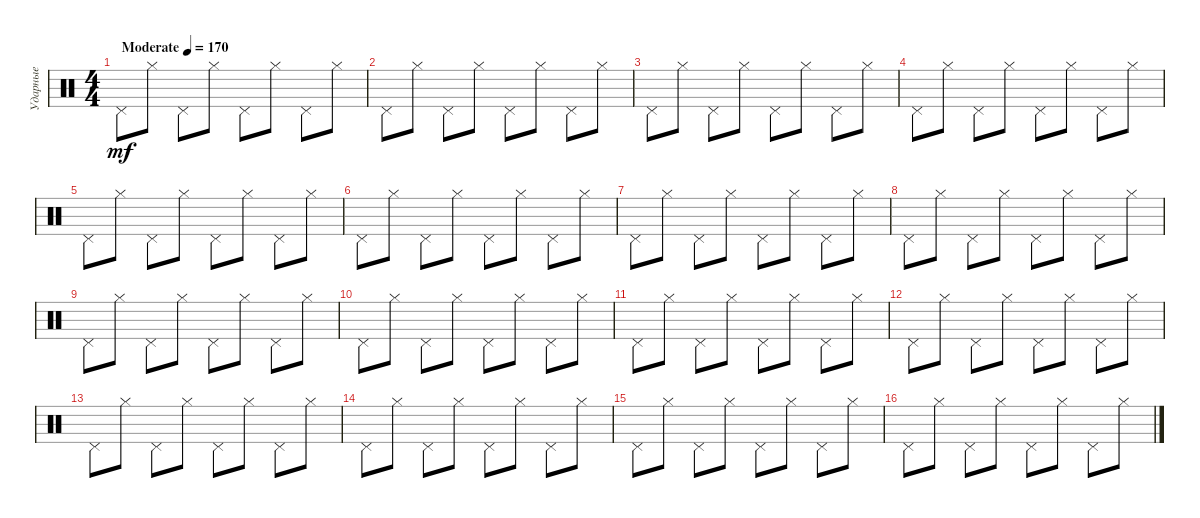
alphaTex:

\track ("Ударные" "Ударные") {instrument percussion}
\staff {score}
\articulation defaults
\ts (4 4)
\tempo (170 "Moderate")
\clef neutral
\ks c "Pedal Hi-Hat (hit)".8{dy mf} "Hi-Hat (closed)".8 "Pedal Hi-Hat (hit)".8 "Hi-Hat (closed)".8 "Pedal Hi-Hat (hit)".8 "Hi-Hat (closed)".8 "Pedal Hi-Hat (hit)".8 "Hi-Hat (closed)".8
|
"Pedal Hi-Hat (hit)".8 "Hi-Hat (closed)".8 "Pedal Hi-Hat (hit)".8 "Hi-Hat (closed)".8 "Pedal Hi-Hat (hit)".8 "Hi-Hat (closed)".8 "Pedal Hi-Hat (hit)".8 "Hi-Hat (closed)".8 |
"Pedal Hi-Hat (hit)".8 "Hi-Hat (closed)".8 "Pedal Hi-Hat (hit)".8 "Hi-Hat (closed)".8 "Pedal Hi-Hat (hit)".8 "Hi-Hat (closed)".8 "Pedal Hi-Hat (hit)".8 "Hi-Hat (closed)".8 |
"Pedal Hi-Hat (hit)".8 "Hi-Hat (closed)".8 "Pedal Hi-Hat (hit)".8 "Hi-Hat (closed)".8 "Pedal Hi-Hat (hit)".8 "Hi-Hat (closed)".8 "Pedal Hi-Hat (hit)".8 "Hi-Hat (closed)".8 |
"Pedal Hi-Hat (hit)".8 "Hi-Hat (closed)".8 "Pedal Hi-Hat (hit)".8 "Hi-Hat (closed)".8 "Pedal Hi-Hat (hit)".8 "Hi-Hat (closed)".8 "Pedal Hi-Hat (hit)".8 "Hi-Hat (closed)".8 |
"Pedal Hi-Hat (hit)".8 "Hi-Hat (closed)".8 "Pedal Hi-Hat (hit)".8 "Hi-Hat (closed)".8 "Pedal Hi-Hat (hit)".8 "Hi-Hat (closed)".8 "Pedal Hi-Hat (hit)".8 "Hi-Hat (closed)".8 |
"Pedal Hi-Hat (hit)".8 "Hi-Hat (closed)".8 "Pedal Hi-Hat (hit)".8 "Hi-Hat (closed)".8 "Pedal Hi-Hat (hit)".8 "Hi-Hat (closed)".8 "Pedal Hi-Hat (hit)".8 "Hi-Hat (closed)".8 |
"Pedal Hi-Hat (hit)".8 "Hi-Hat (closed)".8 "Pedal Hi-Hat (hit)".8 "Hi-Hat (closed)".8 "Pedal Hi-Hat (hit)".8 "Hi-Hat (closed)".8 "Pedal Hi-Hat (hit)".8 "Hi-Hat (closed)".8 |
"Pedal Hi-Hat (hit)".8 "Hi-Hat (closed)".8 "Pedal Hi-Hat (hit)".8 "Hi-Hat (closed)".8 "Pedal Hi-Hat (hit)".8 "Hi-Hat (closed)".8 "Pedal Hi-Hat (hit)".8 "Hi-Hat (closed)".8 |
"Pedal Hi-Hat (hit)".8 "Hi-Hat (closed)".8 "Pedal Hi-Hat (hit)".8 "Hi-Hat (closed)".8 "Pedal Hi-Hat (hit)".8 "Hi-Hat (closed)".8 "Pedal Hi-Hat (hit)".8 "Hi-Hat (closed)".8 |
"Pedal Hi-Hat (hit)".8 "Hi-Hat (closed)".8 "Pedal Hi-Hat (hit)".8 "Hi-Hat (closed)".8 "Pedal Hi-Hat (hit)".8 "Hi-Hat (closed)".8 "Pedal Hi-Hat (hit)".8 "Hi-Hat (closed)".8 |
"Pedal Hi-Hat (hit)".8 "Hi-Hat (closed)".8 "Pedal Hi-Hat (hit)".8 "Hi-Hat (closed)".8 "Pedal Hi-Hat (hit)".8 "Hi-Hat (closed)".8 "Pedal Hi-Hat (hit)".8 "Hi-Hat (closed)".8 |
"Pedal Hi-Hat (hit)".8 "Hi-Hat (closed)".8 "Pedal Hi-Hat (hit)".8 "Hi-Hat (closed)".8 "Pedal Hi-Hat (hit)".8 "Hi-Hat (closed)".8 "Pedal Hi-Hat (hit)".8 "Hi-Hat (closed)".8 |
"Pedal Hi-Hat (hit)".8 "Hi-Hat (closed)".8 "Pedal Hi-Hat (hit)".8 "Hi-Hat (closed)".8 "Pedal Hi-Hat (hit)".8 "Hi-Hat (closed)".8 "Pedal Hi-Hat (hit)".8 "Hi-Hat (closed)".8 |
"Pedal Hi-Hat (hit)".8 "Hi-Hat (closed)".8 "Pedal Hi-Hat (hit)".8 "Hi-Hat (closed)".8 "Pedal Hi-Hat (hit)".8 "Hi-Hat (closed)".8 "Pedal Hi-Hat (hit)".8 "Hi-Hat (closed)".8 |
"Pedal Hi-Hat (hit)".8 "Hi-Hat (closed)".8 "Pedal Hi-Hat (hit)".8 "Hi-Hat (closed)".8 "Pedal Hi-Hat (hit)".8 "Hi-Hat (closed)".8 "Pedal Hi-Hat (hit)".8 "Hi-Hat (closed)".8
